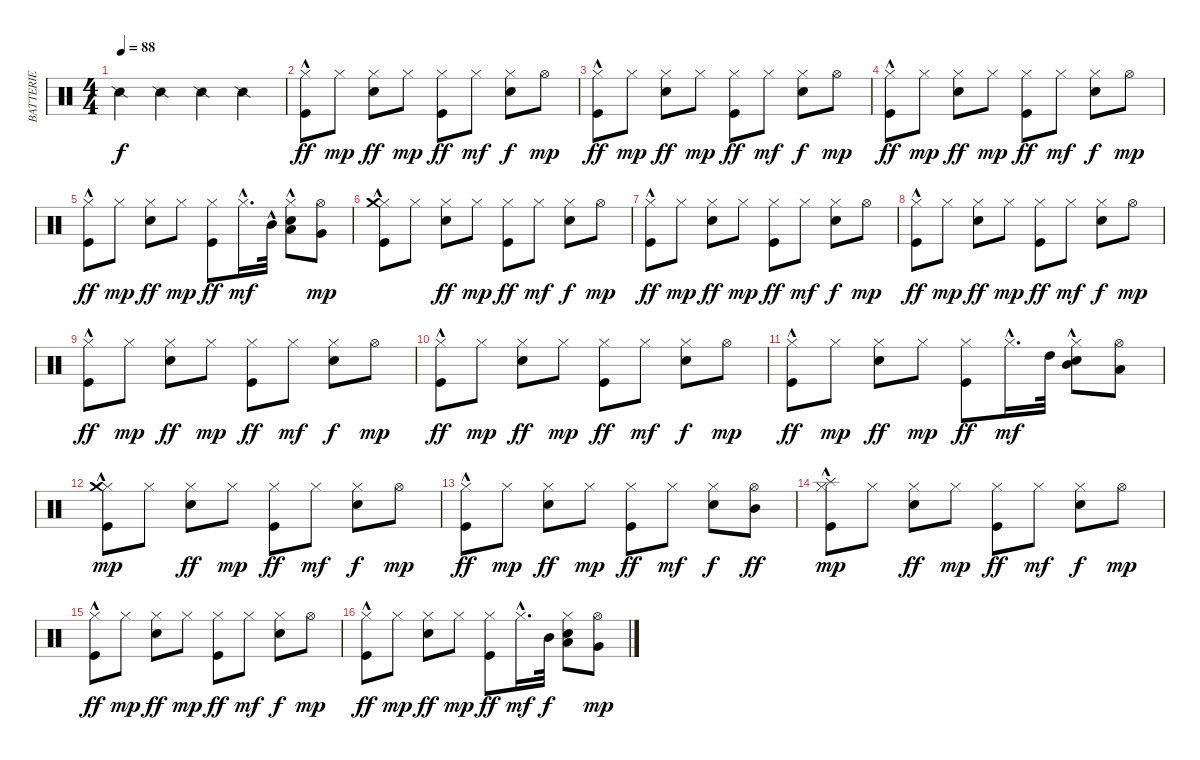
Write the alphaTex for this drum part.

\track ("BATTERIE" "BATTERIE") {instrument percussion}
\staff {score}
\articulation defaults
\ts (4 4)
\tempo 88
\clef neutral
\ks c "Snare (side stick) 2".4{dy f} "Snare (side stick) 2".4 "Snare (side stick) 2".4 "Snare (side stick) 2".4
|
("Kick (hit)"{hac} "Hi-Hat (closed)").8{dy ff} "Hi-Hat (closed)".8{dy mp} ("Electric Snare (hit)" "Hi-Hat (closed)").8{dy ff} "Hi-Hat (closed)".8{dy mp} ("Kick (hit)" "Hi-Hat (closed)").8{dy ff} "Hi-Hat (closed)".8{dy mf} ("Electric Snare (hit)" "Hi-Hat (closed)").8{dy f} "Hi-Hat (open)".8{dy mp} |
("Kick (hit)"{hac} "Hi-Hat (closed)").8{dy ff} "Hi-Hat (closed)".8{dy mp} ("Electric Snare (hit)" "Hi-Hat (closed)").8{dy ff} "Hi-Hat (closed)".8{dy mp} ("Kick (hit)" "Hi-Hat (closed)").8{dy ff} "Hi-Hat (closed)".8{dy mf} ("Electric Snare (hit)" "Hi-Hat (closed)").8{dy f} "Hi-Hat (open)".8{dy mp} |
("Kick (hit)"{hac} "Hi-Hat (closed)").8{dy ff} "Hi-Hat (closed)".8{dy mp} ("Electric Snare (hit)" "Hi-Hat (closed)").8{dy ff} "Hi-Hat (closed)".8{dy mp} ("Kick (hit)" "Hi-Hat (closed)").8{dy ff} "Hi-Hat (closed)".8{dy mf} ("Electric Snare (hit)" "Hi-Hat (closed)").8{dy f} "Hi-Hat (open)".8{dy mp} |
("Kick (hit)"{hac} "Hi-Hat (closed)").8{dy ff} "Hi-Hat (closed)".8{dy mp} ("Electric Snare (hit)" "Hi-Hat (closed)").8{dy ff} "Hi-Hat (closed)".8{dy mp} ("Kick (hit)" "Hi-Hat (closed)").8{dy ff} "Hi-Hat (closed)"{hac}.16{d dy mf} "Mid Tom (hit)"{hac}.32 ("Electric Snare (hit)" "Hi-Hat (closed)" "Low Tom (hit)"{hac}).8 ("Hi-Hat (open)" "Very Low Tom (hit)").8{dy mp} |
("Kick (hit)"{hac} "Hi-Hat (closed)" "Crash medium (hit)").8 "Hi-Hat (closed)".8 ("Electric Snare (hit)" "Hi-Hat (closed)").8{dy ff} "Hi-Hat (closed)".8{dy mp} ("Kick (hit)" "Hi-Hat (closed)").8{dy ff} "Hi-Hat (closed)".8{dy mf} ("Electric Snare (hit)" "Hi-Hat (closed)").8{dy f} "Hi-Hat (open)".8{dy mp} |
("Kick (hit)"{hac} "Hi-Hat (closed)").8{dy ff} "Hi-Hat (closed)".8{dy mp} ("Electric Snare (hit)" "Hi-Hat (closed)").8{dy ff} "Hi-Hat (closed)".8{dy mp} ("Kick (hit)" "Hi-Hat (closed)").8{dy ff} "Hi-Hat (closed)".8{dy mf} ("Electric Snare (hit)" "Hi-Hat (closed)").8{dy f} "Hi-Hat (open)".8{dy mp} |
("Kick (hit)"{hac} "Hi-Hat (closed)").8{dy ff} "Hi-Hat (closed)".8{dy mp} ("Electric Snare (hit)" "Hi-Hat (closed)").8{dy ff} "Hi-Hat (closed)".8{dy mp} ("Kick (hit)" "Hi-Hat (closed)").8{dy ff} "Hi-Hat (closed)".8{dy mf} ("Electric Snare (hit)" "Hi-Hat (closed)").8{dy f} "Hi-Hat (open)".8{dy mp} |
("Kick (hit)"{hac} "Hi-Hat (closed)").8{dy ff} "Hi-Hat (closed)".8{dy mp} ("Electric Snare (hit)" "Hi-Hat (closed)").8{dy ff} "Hi-Hat (closed)".8{dy mp} ("Kick (hit)" "Hi-Hat (closed)").8{dy ff} "Hi-Hat (closed)".8{dy mf} ("Electric Snare (hit)" "Hi-Hat (closed)").8{dy f} "Hi-Hat (open)".8{dy mp} |
("Kick (hit)"{hac} "Hi-Hat (closed)").8{dy ff} "Hi-Hat (closed)".8{dy mp} ("Electric Snare (hit)" "Hi-Hat (closed)").8{dy ff} "Hi-Hat (closed)".8{dy mp} ("Kick (hit)" "Hi-Hat (closed)").8{dy ff} "Hi-Hat (closed)".8{dy mf} ("Electric Snare (hit)" "Hi-Hat (closed)").8{dy f} "Hi-Hat (open)".8{dy mp} |
("Kick (hit)"{hac} "Hi-Hat (closed)").8{dy ff} "Hi-Hat (closed)".8{dy mp} ("Electric Snare (hit)" "Hi-Hat (closed)").8{dy ff} "Hi-Hat (closed)".8{dy mp} ("Kick (hit)" "Hi-Hat (closed)").8{dy ff} "Hi-Hat (closed)"{hac}.16{d dy mf} "High Tom (hit)".32 ("Electric Snare (hit)" "Hi-Hat (closed)" "Mid Tom (hit)"{hac}).8 ("Hi-Hat (open)" "Low Tom (hit)").8 |
("Kick (hit)"{hac} "Hi-Hat (closed)" "Crash medium (hit)").8{dy mp} "Hi-Hat (closed)".8 ("Electric Snare (hit)" "Hi-Hat (closed)").8{dy ff} "Hi-Hat (closed)".8{dy mp} ("Kick (hit)" "Hi-Hat (closed)").8{dy ff} "Hi-Hat (closed)".8{dy mf} ("Electric Snare (hit)" "Hi-Hat (closed)").8{dy f} "Hi-Hat (open)".8{dy mp} |
("Kick (hit)"{hac} "Hi-Hat (closed)").8{dy ff} "Hi-Hat (closed)".8{dy mp} ("Electric Snare (hit)" "Hi-Hat (closed)").8{dy ff} "Hi-Hat (closed)".8{dy mp} ("Kick (hit)" "Hi-Hat (closed)").8{dy ff} "Hi-Hat (closed)".8{dy mf} ("Electric Snare (hit)" "Hi-Hat (closed)").8{dy f} ("Hi-Hat (open)" "Mid Tom (hit)").8{dy ff} |
("Kick (hit)"{hac} "Hi-Hat (closed)" "Splash (hit)").8{dy mp} "Hi-Hat (closed)".8 ("Electric Snare (hit)" "Hi-Hat (closed)").8{dy ff} "Hi-Hat (closed)".8{dy mp} ("Kick (hit)" "Hi-Hat (closed)").8{dy ff} "Hi-Hat (closed)".8{dy mf} ("Electric Snare (hit)" "Hi-Hat (closed)").8{dy f} "Hi-Hat (open)".8{dy mp} |
("Kick (hit)"{hac} "Hi-Hat (closed)").8{dy ff} "Hi-Hat (closed)".8{dy mp} ("Electric Snare (hit)" "Hi-Hat (closed)").8{dy ff} "Hi-Hat (closed)".8{dy mp} ("Kick (hit)" "Hi-Hat (closed)").8{dy ff} "Hi-Hat (closed)".8{dy mf} ("Electric Snare (hit)" "Hi-Hat (closed)").8{dy f} "Hi-Hat (open)".8{dy mp} |
("Kick (hit)"{hac} "Hi-Hat (closed)").8{dy ff} "Hi-Hat (closed)".8{dy mp} ("Electric Snare (hit)" "Hi-Hat (closed)").8{dy ff} "Hi-Hat (closed)".8{dy mp} ("Kick (hit)" "Hi-Hat (closed)").8{dy ff} "Hi-Hat (closed)"{hac}.16{d dy mf} "Mid Tom (hit)".32{dy f} ("Electric Snare (hit)" "Hi-Hat (closed)" "Low Tom (hit)").8 ("Hi-Hat (open)" "Very Low Tom (hit)").8{dy mp}
